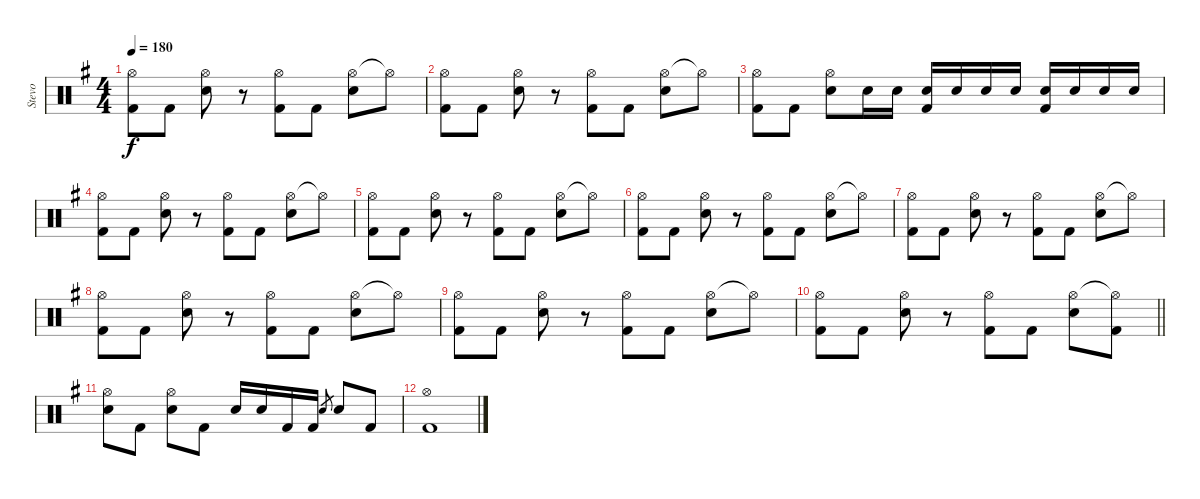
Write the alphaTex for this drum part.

\track ("Stevo" "Stevo") {instrument percussion}
\staff {score}
\articulation defaults
\ts (4 4)
\tempo 180
\clef neutral
\ks g
("Hi-Hat (open)" "Kick (hit) 2").8{dy f} "Kick (hit) 2".8 ("Hi-Hat (open)" "Snare (hit) 2").8 r.8 ("Hi-Hat (open)" "Kick (hit) 2").8 "Kick (hit) 2".8 ("Hi-Hat (open)" "Snare (hit) 2").8 "Hi-Hat (open)"{t}.8 |
("Hi-Hat (open)" "Kick (hit) 2").8 "Kick (hit) 2".8 ("Hi-Hat (open)" "Snare (hit) 2").8 r.8 ("Hi-Hat (open)" "Kick (hit) 2").8 "Kick (hit) 2".8 ("Hi-Hat (open)" "Snare (hit) 2").8 "Hi-Hat (open)"{t}.8 |
("Hi-Hat (open)" "Kick (hit) 2").8 "Kick (hit) 2".8 ("Hi-Hat (open)" "Snare (hit) 2").8 "Snare (hit) 2".16 "Snare (hit) 2".16 ("Snare (hit) 2" "Kick (hit) 2").16 "Snare (hit) 2".16 "Snare (hit) 2".16 "Snare (hit) 2".16 ("Snare (hit) 2" "Kick (hit) 2").16 "Snare (hit) 2".16 "Snare (hit) 2".16 "Snare (hit) 2".16 |
("Hi-Hat (open)" "Kick (hit) 2").8 "Kick (hit) 2".8 ("Hi-Hat (open)" "Snare (hit) 2").8 r.8 ("Hi-Hat (open)" "Kick (hit) 2").8 "Kick (hit) 2".8 ("Hi-Hat (open)" "Snare (hit) 2").8 "Hi-Hat (open)"{t}.8 |
("Hi-Hat (open)" "Kick (hit) 2").8 "Kick (hit) 2".8 ("Hi-Hat (open)" "Snare (hit) 2").8 r.8 ("Hi-Hat (open)" "Kick (hit) 2").8 "Kick (hit) 2".8 ("Hi-Hat (open)" "Snare (hit) 2").8 "Hi-Hat (open)"{t}.8 |
("Hi-Hat (open)" "Kick (hit) 2").8 "Kick (hit) 2".8 ("Hi-Hat (open)" "Snare (hit) 2").8 r.8 ("Hi-Hat (open)" "Kick (hit) 2").8 "Kick (hit) 2".8 ("Hi-Hat (open)" "Snare (hit) 2").8 "Hi-Hat (open)"{t}.8 |
("Hi-Hat (open)" "Kick (hit) 2").8 "Kick (hit) 2".8 ("Hi-Hat (open)" "Snare (hit) 2").8 r.8 ("Hi-Hat (open)" "Kick (hit) 2").8 "Kick (hit) 2".8 ("Hi-Hat (open)" "Snare (hit) 2").8 "Hi-Hat (open)"{t}.8 |
("Hi-Hat (open)" "Kick (hit) 2").8 "Kick (hit) 2".8 ("Hi-Hat (open)" "Snare (hit) 2").8 r.8 ("Hi-Hat (open)" "Kick (hit) 2").8 "Kick (hit) 2".8 ("Hi-Hat (open)" "Snare (hit) 2").8 "Hi-Hat (open)"{t}.8 |
("Hi-Hat (open)" "Kick (hit) 2").8 "Kick (hit) 2".8 ("Hi-Hat (open)" "Snare (hit) 2").8 r.8 ("Hi-Hat (open)" "Kick (hit) 2").8 "Kick (hit) 2".8 ("Hi-Hat (open)" "Snare (hit) 2").8 "Hi-Hat (open)"{t}.8 |
\barLineRight lightlight
("Hi-Hat (open)" "Kick (hit) 2").8 "Kick (hit) 2".8 ("Hi-Hat (open)" "Snare (hit) 2").8 r.8 ("Hi-Hat (open)" "Kick (hit) 2").8 "Kick (hit) 2".8 ("Hi-Hat (open)" "Snare (hit) 2").8 ("Hi-Hat (open)"{t} "Kick (hit) 2").8 |
("Hi-Hat (open)" "Snare (hit) 2").8 "Kick (hit) 2".8 ("Hi-Hat (open)" "Snare (hit) 2").8 "Kick (hit) 2".8 "Snare (hit) 2".16 "Snare (hit) 2".16 "Kick (hit) 2".16 "Kick (hit) 2".16 "Snare (hit) 2".8{gr} "Snare (hit) 2".8 "Kick (hit) 2".8 |
("Hi-Hat (open)" "Kick (hit) 2").1
